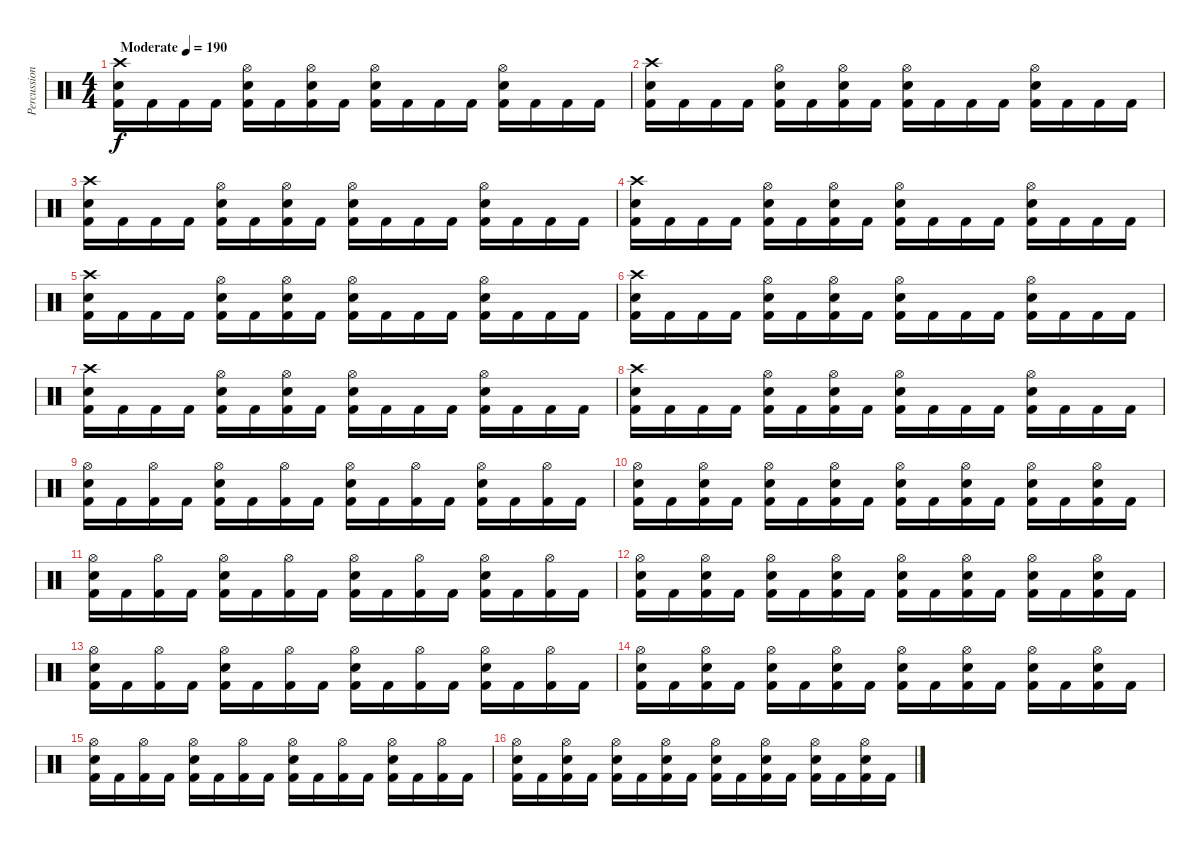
\track ("Percussion" "Percussion") {instrument percussion}
\staff {score}
\articulation defaults
\ts (4 4)
\tempo (190 "Moderate")
\clef neutral
\ks c
("Kick (hit) 2" "Snare (hit) 2" "Crash high (hit)").16{dy f} "Kick (hit) 2".16 "Kick (hit) 2".16 "Kick (hit) 2".16 ("Kick (hit) 2" "Snare (hit) 2" "Hi-Hat (open)").16 "Kick (hit) 2".16 ("Kick (hit) 2" "Snare (hit) 2" "Hi-Hat (open)").16 "Kick (hit) 2".16 ("Kick (hit) 2" "Snare (hit) 2" "Hi-Hat (open)").16 "Kick (hit) 2".16 "Kick (hit) 2".16 "Kick (hit) 2".16 ("Kick (hit) 2" "Snare (hit) 2" "Hi-Hat (open)").16 "Kick (hit) 2".16 "Kick (hit) 2".16 "Kick (hit) 2".16 |
("Kick (hit) 2" "Snare (hit) 2" "Crash high (hit)").16 "Kick (hit) 2".16 "Kick (hit) 2".16 "Kick (hit) 2".16 ("Kick (hit) 2" "Snare (hit) 2" "Hi-Hat (open)").16 "Kick (hit) 2".16 ("Kick (hit) 2" "Snare (hit) 2" "Hi-Hat (open)").16 "Kick (hit) 2".16 ("Kick (hit) 2" "Snare (hit) 2" "Hi-Hat (open)").16 "Kick (hit) 2".16 "Kick (hit) 2".16 "Kick (hit) 2".16 ("Kick (hit) 2" "Snare (hit) 2" "Hi-Hat (open)").16 "Kick (hit) 2".16 "Kick (hit) 2".16 "Kick (hit) 2".16 |
("Kick (hit) 2" "Snare (hit) 2" "Crash high (hit)").16 "Kick (hit) 2".16 "Kick (hit) 2".16 "Kick (hit) 2".16 ("Kick (hit) 2" "Snare (hit) 2" "Hi-Hat (open)").16 "Kick (hit) 2".16 ("Kick (hit) 2" "Snare (hit) 2" "Hi-Hat (open)").16 "Kick (hit) 2".16 ("Kick (hit) 2" "Snare (hit) 2" "Hi-Hat (open)").16 "Kick (hit) 2".16 "Kick (hit) 2".16 "Kick (hit) 2".16 ("Kick (hit) 2" "Snare (hit) 2" "Hi-Hat (open)").16 "Kick (hit) 2".16 "Kick (hit) 2".16 "Kick (hit) 2".16 |
("Kick (hit) 2" "Snare (hit) 2" "Crash high (hit)").16 "Kick (hit) 2".16 "Kick (hit) 2".16 "Kick (hit) 2".16 ("Kick (hit) 2" "Snare (hit) 2" "Hi-Hat (open)").16 "Kick (hit) 2".16 ("Kick (hit) 2" "Snare (hit) 2" "Hi-Hat (open)").16 "Kick (hit) 2".16 ("Kick (hit) 2" "Snare (hit) 2" "Hi-Hat (open)").16 "Kick (hit) 2".16 "Kick (hit) 2".16 "Kick (hit) 2".16 ("Kick (hit) 2" "Snare (hit) 2" "Hi-Hat (open)").16 "Kick (hit) 2".16 "Kick (hit) 2".16 "Kick (hit) 2".16 |
("Kick (hit) 2" "Snare (hit) 2" "Crash high (hit)").16 "Kick (hit) 2".16 "Kick (hit) 2".16 "Kick (hit) 2".16 ("Kick (hit) 2" "Snare (hit) 2" "Hi-Hat (open)").16 "Kick (hit) 2".16 ("Kick (hit) 2" "Snare (hit) 2" "Hi-Hat (open)").16 "Kick (hit) 2".16 ("Kick (hit) 2" "Snare (hit) 2" "Hi-Hat (open)").16 "Kick (hit) 2".16 "Kick (hit) 2".16 "Kick (hit) 2".16 ("Kick (hit) 2" "Snare (hit) 2" "Hi-Hat (open)").16 "Kick (hit) 2".16 "Kick (hit) 2".16 "Kick (hit) 2".16 |
("Kick (hit) 2" "Snare (hit) 2" "Crash high (hit)").16 "Kick (hit) 2".16 "Kick (hit) 2".16 "Kick (hit) 2".16 ("Kick (hit) 2" "Snare (hit) 2" "Hi-Hat (open)").16 "Kick (hit) 2".16 ("Kick (hit) 2" "Snare (hit) 2" "Hi-Hat (open)").16 "Kick (hit) 2".16 ("Kick (hit) 2" "Snare (hit) 2" "Hi-Hat (open)").16 "Kick (hit) 2".16 "Kick (hit) 2".16 "Kick (hit) 2".16 ("Kick (hit) 2" "Snare (hit) 2" "Hi-Hat (open)").16 "Kick (hit) 2".16 "Kick (hit) 2".16 "Kick (hit) 2".16 |
("Kick (hit) 2" "Snare (hit) 2" "Crash high (hit)").16 "Kick (hit) 2".16 "Kick (hit) 2".16 "Kick (hit) 2".16 ("Kick (hit) 2" "Snare (hit) 2" "Hi-Hat (open)").16 "Kick (hit) 2".16 ("Kick (hit) 2" "Snare (hit) 2" "Hi-Hat (open)").16 "Kick (hit) 2".16 ("Kick (hit) 2" "Snare (hit) 2" "Hi-Hat (open)").16 "Kick (hit) 2".16 "Kick (hit) 2".16 "Kick (hit) 2".16 ("Kick (hit) 2" "Snare (hit) 2" "Hi-Hat (open)").16 "Kick (hit) 2".16 "Kick (hit) 2".16 "Kick (hit) 2".16 |
("Kick (hit) 2" "Snare (hit) 2" "Crash high (hit)").16 "Kick (hit) 2".16 "Kick (hit) 2".16 "Kick (hit) 2".16 ("Kick (hit) 2" "Snare (hit) 2" "Hi-Hat (open)").16 "Kick (hit) 2".16 ("Kick (hit) 2" "Snare (hit) 2" "Hi-Hat (open)").16 "Kick (hit) 2".16 ("Kick (hit) 2" "Snare (hit) 2" "Hi-Hat (open)").16 "Kick (hit) 2".16 "Kick (hit) 2".16 "Kick (hit) 2".16 ("Kick (hit) 2" "Snare (hit) 2" "Hi-Hat (open)").16 "Kick (hit) 2".16 "Kick (hit) 2".16 "Kick (hit) 2".16 |
("Kick (hit) 2" "Snare (hit) 2" "Hi-Hat (open)").16 "Kick (hit) 2".16 ("Kick (hit) 2" "Hi-Hat (open)").16 "Kick (hit) 2".16 ("Kick (hit) 2" "Snare (hit) 2" "Hi-Hat (open)").16 "Kick (hit) 2".16 ("Kick (hit) 2" "Hi-Hat (open)").16 "Kick (hit) 2".16 ("Kick (hit) 2" "Snare (hit) 2" "Hi-Hat (open)").16 "Kick (hit) 2".16 ("Kick (hit) 2" "Hi-Hat (open)").16 "Kick (hit) 2".16 ("Kick (hit) 2" "Snare (hit) 2" "Hi-Hat (open)").16 "Kick (hit) 2".16 ("Kick (hit) 2" "Hi-Hat (open)").16 "Kick (hit) 2".16 |
("Kick (hit) 2" "Snare (hit) 2" "Hi-Hat (open)").16 "Kick (hit) 2".16 ("Kick (hit) 2" "Snare (hit) 2" "Hi-Hat (open)").16 "Kick (hit) 2".16 ("Kick (hit) 2" "Snare (hit) 2" "Hi-Hat (open)").16 "Kick (hit) 2".16 ("Kick (hit) 2" "Snare (hit) 2" "Hi-Hat (open)").16 "Kick (hit) 2".16 ("Kick (hit) 2" "Snare (hit) 2" "Hi-Hat (open)").16 "Kick (hit) 2".16 ("Kick (hit) 2" "Snare (hit) 2" "Hi-Hat (open)").16 "Kick (hit) 2".16 ("Kick (hit) 2" "Snare (hit) 2" "Hi-Hat (open)").16 "Kick (hit) 2".16 ("Kick (hit) 2" "Snare (hit) 2" "Hi-Hat (open)").16 "Kick (hit) 2".16 |
("Kick (hit) 2" "Snare (hit) 2" "Hi-Hat (open)").16 "Kick (hit) 2".16 ("Kick (hit) 2" "Hi-Hat (open)").16 "Kick (hit) 2".16 ("Kick (hit) 2" "Snare (hit) 2" "Hi-Hat (open)").16 "Kick (hit) 2".16 ("Kick (hit) 2" "Hi-Hat (open)").16 "Kick (hit) 2".16 ("Kick (hit) 2" "Snare (hit) 2" "Hi-Hat (open)").16 "Kick (hit) 2".16 ("Kick (hit) 2" "Hi-Hat (open)").16 "Kick (hit) 2".16 ("Kick (hit) 2" "Snare (hit) 2" "Hi-Hat (open)").16 "Kick (hit) 2".16 ("Kick (hit) 2" "Hi-Hat (open)").16 "Kick (hit) 2".16 |
("Kick (hit) 2" "Snare (hit) 2" "Hi-Hat (open)").16 "Kick (hit) 2".16 ("Kick (hit) 2" "Snare (hit) 2" "Hi-Hat (open)").16 "Kick (hit) 2".16 ("Kick (hit) 2" "Snare (hit) 2" "Hi-Hat (open)").16 "Kick (hit) 2".16 ("Kick (hit) 2" "Snare (hit) 2" "Hi-Hat (open)").16 "Kick (hit) 2".16 ("Kick (hit) 2" "Snare (hit) 2" "Hi-Hat (open)").16 "Kick (hit) 2".16 ("Kick (hit) 2" "Snare (hit) 2" "Hi-Hat (open)").16 "Kick (hit) 2".16 ("Kick (hit) 2" "Snare (hit) 2" "Hi-Hat (open)").16 "Kick (hit) 2".16 ("Kick (hit) 2" "Snare (hit) 2" "Hi-Hat (open)").16 "Kick (hit) 2".16 |
("Kick (hit) 2" "Snare (hit) 2" "Hi-Hat (open)").16 "Kick (hit) 2".16 ("Kick (hit) 2" "Hi-Hat (open)").16 "Kick (hit) 2".16 ("Kick (hit) 2" "Snare (hit) 2" "Hi-Hat (open)").16 "Kick (hit) 2".16 ("Kick (hit) 2" "Hi-Hat (open)").16 "Kick (hit) 2".16 ("Kick (hit) 2" "Snare (hit) 2" "Hi-Hat (open)").16 "Kick (hit) 2".16 ("Kick (hit) 2" "Hi-Hat (open)").16 "Kick (hit) 2".16 ("Kick (hit) 2" "Snare (hit) 2" "Hi-Hat (open)").16 "Kick (hit) 2".16 ("Kick (hit) 2" "Hi-Hat (open)").16 "Kick (hit) 2".16 |
("Kick (hit) 2" "Snare (hit) 2" "Hi-Hat (open)").16 "Kick (hit) 2".16 ("Kick (hit) 2" "Snare (hit) 2" "Hi-Hat (open)").16 "Kick (hit) 2".16 ("Kick (hit) 2" "Snare (hit) 2" "Hi-Hat (open)").16 "Kick (hit) 2".16 ("Kick (hit) 2" "Snare (hit) 2" "Hi-Hat (open)").16 "Kick (hit) 2".16 ("Kick (hit) 2" "Snare (hit) 2" "Hi-Hat (open)").16 "Kick (hit) 2".16 ("Kick (hit) 2" "Snare (hit) 2" "Hi-Hat (open)").16 "Kick (hit) 2".16 ("Kick (hit) 2" "Snare (hit) 2" "Hi-Hat (open)").16 "Kick (hit) 2".16 ("Kick (hit) 2" "Snare (hit) 2" "Hi-Hat (open)").16 "Kick (hit) 2".16 |
("Kick (hit) 2" "Snare (hit) 2" "Hi-Hat (open)").16 "Kick (hit) 2".16 ("Kick (hit) 2" "Hi-Hat (open)").16 "Kick (hit) 2".16 ("Kick (hit) 2" "Snare (hit) 2" "Hi-Hat (open)").16 "Kick (hit) 2".16 ("Kick (hit) 2" "Hi-Hat (open)").16 "Kick (hit) 2".16 ("Kick (hit) 2" "Snare (hit) 2" "Hi-Hat (open)").16 "Kick (hit) 2".16 ("Kick (hit) 2" "Hi-Hat (open)").16 "Kick (hit) 2".16 ("Kick (hit) 2" "Snare (hit) 2" "Hi-Hat (open)").16 "Kick (hit) 2".16 ("Kick (hit) 2" "Hi-Hat (open)").16 "Kick (hit) 2".16 |
("Kick (hit) 2" "Snare (hit) 2" "Hi-Hat (open)").16 "Kick (hit) 2".16 ("Kick (hit) 2" "Snare (hit) 2" "Hi-Hat (open)").16 "Kick (hit) 2".16 ("Kick (hit) 2" "Snare (hit) 2" "Hi-Hat (open)").16 "Kick (hit) 2".16 ("Kick (hit) 2" "Snare (hit) 2" "Hi-Hat (open)").16 "Kick (hit) 2".16 ("Kick (hit) 2" "Snare (hit) 2" "Hi-Hat (open)").16 "Kick (hit) 2".16 ("Kick (hit) 2" "Snare (hit) 2" "Hi-Hat (open)").16 "Kick (hit) 2".16 ("Kick (hit) 2" "Snare (hit) 2" "Hi-Hat (open)").16 "Kick (hit) 2".16 ("Kick (hit) 2" "Snare (hit) 2" "Hi-Hat (open)").16 "Kick (hit) 2".16
